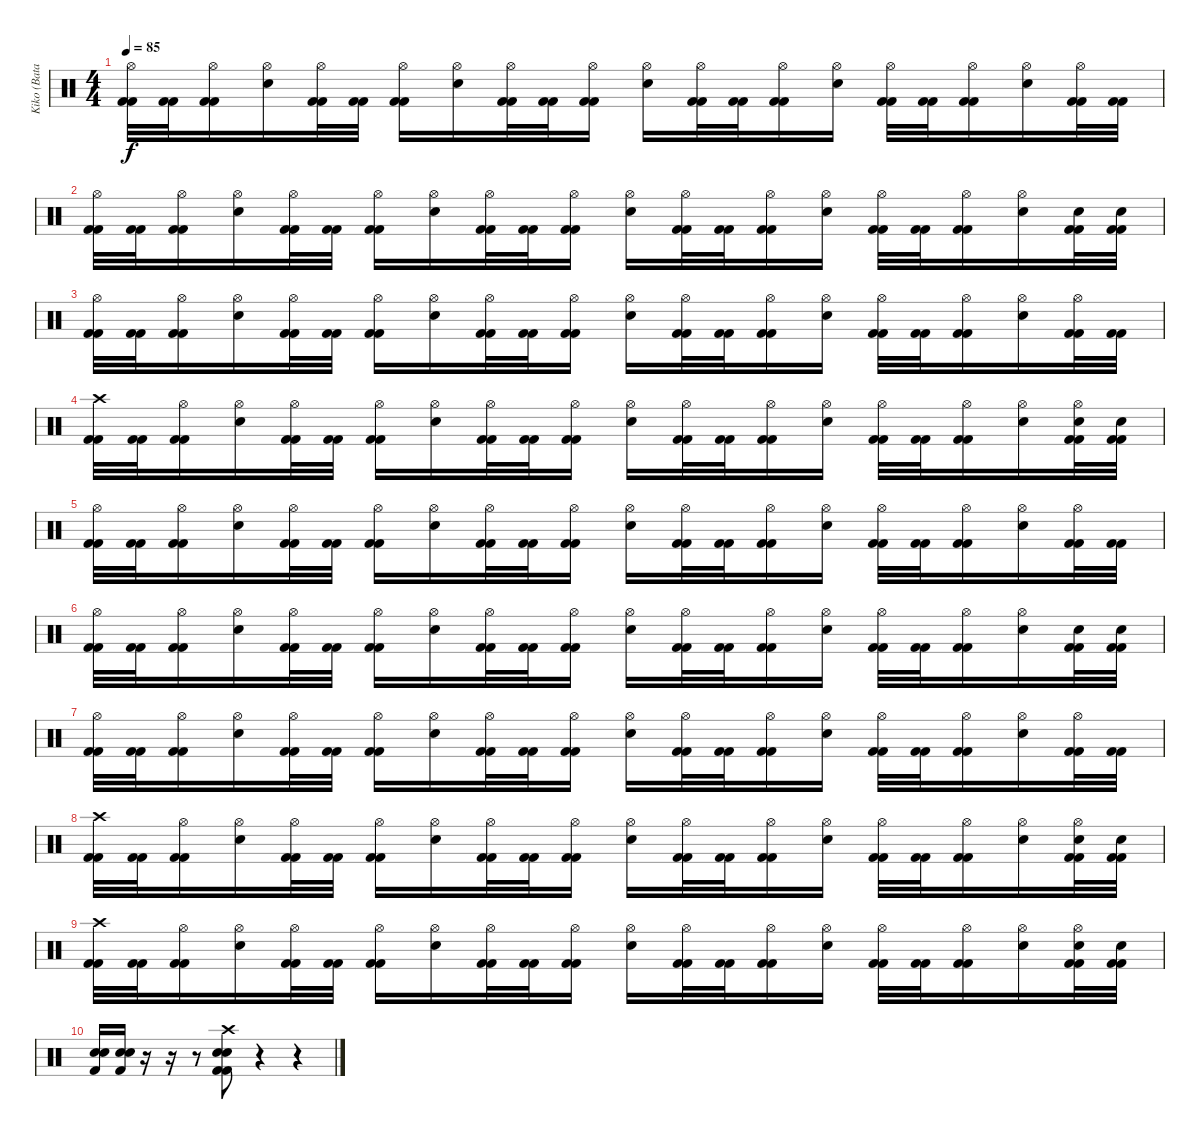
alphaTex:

\track ("Kiko (Bataca)" "Kiko (Bata") {instrument percussion}
\staff {score}
\articulation defaults
\ts (4 4)
\tempo 85
\clef neutral
\ks c
("Hi-Hat (open)" "Kick (hit) 2" "Kick (hit) 2").32{dy f} ("Kick (hit) 2" "Kick (hit) 2").32 ("Hi-Hat (open)" "Kick (hit) 2" "Kick (hit) 2").16 ("Hi-Hat (open)" "Electric Snare (hit)").16 ("Hi-Hat (open)" "Kick (hit) 2" "Kick (hit) 2").32 ("Kick (hit) 2" "Kick (hit) 2").32 ("Hi-Hat (open)" "Kick (hit) 2" "Kick (hit) 2").16 ("Hi-Hat (open)" "Electric Snare (hit)").16 ("Hi-Hat (open)" "Kick (hit) 2" "Kick (hit) 2").32 ("Kick (hit) 2" "Kick (hit) 2").32 ("Hi-Hat (open)" "Kick (hit) 2" "Kick (hit) 2").16 ("Hi-Hat (open)" "Electric Snare (hit)").16 ("Hi-Hat (open)" "Kick (hit) 2" "Kick (hit) 2").32 ("Kick (hit) 2" "Kick (hit) 2").32 ("Hi-Hat (open)" "Kick (hit) 2" "Kick (hit) 2").16 ("Hi-Hat (open)" "Electric Snare (hit)").16 ("Hi-Hat (open)" "Kick (hit) 2" "Kick (hit) 2").32 ("Kick (hit) 2" "Kick (hit) 2").32 ("Hi-Hat (open)" "Kick (hit) 2" "Kick (hit) 2").16 ("Hi-Hat (open)" "Electric Snare (hit)").16 ("Hi-Hat (open)" "Kick (hit) 2" "Kick (hit) 2").32 ("Kick (hit) 2" "Kick (hit) 2").32 |
("Hi-Hat (open)" "Kick (hit) 2" "Kick (hit) 2").32 ("Kick (hit) 2" "Kick (hit) 2").32 ("Hi-Hat (open)" "Kick (hit) 2" "Kick (hit) 2").16 ("Hi-Hat (open)" "Electric Snare (hit)").16 ("Hi-Hat (open)" "Kick (hit) 2" "Kick (hit) 2").32 ("Kick (hit) 2" "Kick (hit) 2").32 ("Hi-Hat (open)" "Kick (hit) 2" "Kick (hit) 2").16 ("Hi-Hat (open)" "Electric Snare (hit)").16 ("Hi-Hat (open)" "Kick (hit) 2" "Kick (hit) 2").32 ("Kick (hit) 2" "Kick (hit) 2").32 ("Hi-Hat (open)" "Kick (hit) 2" "Kick (hit) 2").16 ("Hi-Hat (open)" "Electric Snare (hit)").16 ("Hi-Hat (open)" "Kick (hit) 2" "Kick (hit) 2").32 ("Kick (hit) 2" "Kick (hit) 2").32 ("Hi-Hat (open)" "Kick (hit) 2" "Kick (hit) 2").16 ("Hi-Hat (open)" "Electric Snare (hit)").16 ("Hi-Hat (open)" "Kick (hit) 2" "Kick (hit) 2").32 ("Kick (hit) 2" "Kick (hit) 2").32 ("Hi-Hat (open)" "Kick (hit) 2" "Kick (hit) 2").16 ("Hi-Hat (open)" "Electric Snare (hit)").16 ("Electric Snare (hit)" "Kick (hit) 2" "Kick (hit) 2").32 ("Electric Snare (hit)" "Kick (hit) 2" "Kick (hit) 2").32 |
("Hi-Hat (open)" "Kick (hit) 2" "Kick (hit) 2").32 ("Kick (hit) 2" "Kick (hit) 2").32 ("Hi-Hat (open)" "Kick (hit) 2" "Kick (hit) 2").16 ("Hi-Hat (open)" "Electric Snare (hit)").16 ("Hi-Hat (open)" "Kick (hit) 2" "Kick (hit) 2").32 ("Kick (hit) 2" "Kick (hit) 2").32 ("Hi-Hat (open)" "Kick (hit) 2" "Kick (hit) 2").16 ("Hi-Hat (open)" "Electric Snare (hit)").16 ("Hi-Hat (open)" "Kick (hit) 2" "Kick (hit) 2").32 ("Kick (hit) 2" "Kick (hit) 2").32 ("Hi-Hat (open)" "Kick (hit) 2" "Kick (hit) 2").16 ("Hi-Hat (open)" "Electric Snare (hit)").16 ("Hi-Hat (open)" "Kick (hit) 2" "Kick (hit) 2").32 ("Kick (hit) 2" "Kick (hit) 2").32 ("Hi-Hat (open)" "Kick (hit) 2" "Kick (hit) 2").16 ("Hi-Hat (open)" "Electric Snare (hit)").16 ("Hi-Hat (open)" "Kick (hit) 2" "Kick (hit) 2").32 ("Kick (hit) 2" "Kick (hit) 2").32 ("Hi-Hat (open)" "Kick (hit) 2" "Kick (hit) 2").16 ("Hi-Hat (open)" "Electric Snare (hit)").16 ("Hi-Hat (open)" "Kick (hit) 2" "Kick (hit) 2").32 ("Kick (hit) 2" "Kick (hit) 2").32 |
("Crash high (hit)" "Kick (hit) 2" "Kick (hit) 2").32 ("Kick (hit) 2" "Kick (hit) 2").32 ("Hi-Hat (open)" "Kick (hit) 2" "Kick (hit) 2").16 ("Hi-Hat (open)" "Electric Snare (hit)").16 ("Hi-Hat (open)" "Kick (hit) 2" "Kick (hit) 2").32 ("Kick (hit) 2" "Kick (hit) 2").32 ("Hi-Hat (open)" "Kick (hit) 2" "Kick (hit) 2").16 ("Hi-Hat (open)" "Electric Snare (hit)").16 ("Hi-Hat (open)" "Kick (hit) 2" "Kick (hit) 2").32 ("Kick (hit) 2" "Kick (hit) 2").32 ("Hi-Hat (open)" "Kick (hit) 2" "Kick (hit) 2").16 ("Hi-Hat (open)" "Electric Snare (hit)").16 ("Hi-Hat (open)" "Kick (hit) 2" "Kick (hit) 2").32 ("Kick (hit) 2" "Kick (hit) 2").32 ("Hi-Hat (open)" "Kick (hit) 2" "Kick (hit) 2").16 ("Hi-Hat (open)" "Electric Snare (hit)").16 ("Hi-Hat (open)" "Kick (hit) 2" "Kick (hit) 2").32 ("Kick (hit) 2" "Kick (hit) 2").32 ("Hi-Hat (open)" "Kick (hit) 2" "Kick (hit) 2").16 ("Hi-Hat (open)" "Electric Snare (hit)").16 ("Hi-Hat (open)" "Electric Snare (hit)" "Kick (hit) 2" "Kick (hit) 2").32 ("Electric Snare (hit)" "Kick (hit) 2" "Kick (hit) 2").32 |
("Hi-Hat (open)" "Kick (hit) 2" "Kick (hit) 2").32 ("Kick (hit) 2" "Kick (hit) 2").32 ("Hi-Hat (open)" "Kick (hit) 2" "Kick (hit) 2").16 ("Hi-Hat (open)" "Electric Snare (hit)").16 ("Hi-Hat (open)" "Kick (hit) 2" "Kick (hit) 2").32 ("Kick (hit) 2" "Kick (hit) 2").32 ("Hi-Hat (open)" "Kick (hit) 2" "Kick (hit) 2").16 ("Hi-Hat (open)" "Electric Snare (hit)").16 ("Hi-Hat (open)" "Kick (hit) 2" "Kick (hit) 2").32 ("Kick (hit) 2" "Kick (hit) 2").32 ("Hi-Hat (open)" "Kick (hit) 2" "Kick (hit) 2").16 ("Hi-Hat (open)" "Electric Snare (hit)").16 ("Hi-Hat (open)" "Kick (hit) 2" "Kick (hit) 2").32 ("Kick (hit) 2" "Kick (hit) 2").32 ("Hi-Hat (open)" "Kick (hit) 2" "Kick (hit) 2").16 ("Hi-Hat (open)" "Electric Snare (hit)").16 ("Hi-Hat (open)" "Kick (hit) 2" "Kick (hit) 2").32 ("Kick (hit) 2" "Kick (hit) 2").32 ("Hi-Hat (open)" "Kick (hit) 2" "Kick (hit) 2").16 ("Hi-Hat (open)" "Electric Snare (hit)").16 ("Hi-Hat (open)" "Kick (hit) 2" "Kick (hit) 2").32 ("Kick (hit) 2" "Kick (hit) 2").32 |
("Hi-Hat (open)" "Kick (hit) 2" "Kick (hit) 2").32 ("Kick (hit) 2" "Kick (hit) 2").32 ("Hi-Hat (open)" "Kick (hit) 2" "Kick (hit) 2").16 ("Hi-Hat (open)" "Electric Snare (hit)").16 ("Hi-Hat (open)" "Kick (hit) 2" "Kick (hit) 2").32 ("Kick (hit) 2" "Kick (hit) 2").32 ("Hi-Hat (open)" "Kick (hit) 2" "Kick (hit) 2").16 ("Hi-Hat (open)" "Electric Snare (hit)").16 ("Hi-Hat (open)" "Kick (hit) 2" "Kick (hit) 2").32 ("Kick (hit) 2" "Kick (hit) 2").32 ("Hi-Hat (open)" "Kick (hit) 2" "Kick (hit) 2").16 ("Hi-Hat (open)" "Electric Snare (hit)").16 ("Hi-Hat (open)" "Kick (hit) 2" "Kick (hit) 2").32 ("Kick (hit) 2" "Kick (hit) 2").32 ("Hi-Hat (open)" "Kick (hit) 2" "Kick (hit) 2").16 ("Hi-Hat (open)" "Electric Snare (hit)").16 ("Hi-Hat (open)" "Kick (hit) 2" "Kick (hit) 2").32 ("Kick (hit) 2" "Kick (hit) 2").32 ("Hi-Hat (open)" "Kick (hit) 2" "Kick (hit) 2").16 ("Hi-Hat (open)" "Electric Snare (hit)").16 ("Electric Snare (hit)" "Kick (hit) 2" "Kick (hit) 2").32 ("Electric Snare (hit)" "Kick (hit) 2" "Kick (hit) 2").32 |
("Hi-Hat (open)" "Kick (hit) 2" "Kick (hit) 2").32 ("Kick (hit) 2" "Kick (hit) 2").32 ("Hi-Hat (open)" "Kick (hit) 2" "Kick (hit) 2").16 ("Hi-Hat (open)" "Electric Snare (hit)").16 ("Hi-Hat (open)" "Kick (hit) 2" "Kick (hit) 2").32 ("Kick (hit) 2" "Kick (hit) 2").32 ("Hi-Hat (open)" "Kick (hit) 2" "Kick (hit) 2").16 ("Hi-Hat (open)" "Electric Snare (hit)").16 ("Hi-Hat (open)" "Kick (hit) 2" "Kick (hit) 2").32 ("Kick (hit) 2" "Kick (hit) 2").32 ("Hi-Hat (open)" "Kick (hit) 2" "Kick (hit) 2").16 ("Hi-Hat (open)" "Electric Snare (hit)").16 ("Hi-Hat (open)" "Kick (hit) 2" "Kick (hit) 2").32 ("Kick (hit) 2" "Kick (hit) 2").32 ("Hi-Hat (open)" "Kick (hit) 2" "Kick (hit) 2").16 ("Hi-Hat (open)" "Electric Snare (hit)").16 ("Hi-Hat (open)" "Kick (hit) 2" "Kick (hit) 2").32 ("Kick (hit) 2" "Kick (hit) 2").32 ("Hi-Hat (open)" "Kick (hit) 2" "Kick (hit) 2").16 ("Hi-Hat (open)" "Electric Snare (hit)").16 ("Hi-Hat (open)" "Kick (hit) 2" "Kick (hit) 2").32 ("Kick (hit) 2" "Kick (hit) 2").32 |
("Crash high (hit)" "Kick (hit) 2" "Kick (hit) 2").32 ("Kick (hit) 2" "Kick (hit) 2").32 ("Hi-Hat (open)" "Kick (hit) 2" "Kick (hit) 2").16 ("Hi-Hat (open)" "Electric Snare (hit)").16 ("Hi-Hat (open)" "Kick (hit) 2" "Kick (hit) 2").32 ("Kick (hit) 2" "Kick (hit) 2").32 ("Hi-Hat (open)" "Kick (hit) 2" "Kick (hit) 2").16 ("Hi-Hat (open)" "Electric Snare (hit)").16 ("Hi-Hat (open)" "Kick (hit) 2" "Kick (hit) 2").32 ("Kick (hit) 2" "Kick (hit) 2").32 ("Hi-Hat (open)" "Kick (hit) 2" "Kick (hit) 2").16 ("Hi-Hat (open)" "Electric Snare (hit)").16 ("Hi-Hat (open)" "Kick (hit) 2" "Kick (hit) 2").32 ("Kick (hit) 2" "Kick (hit) 2").32 ("Hi-Hat (open)" "Kick (hit) 2" "Kick (hit) 2").16 ("Hi-Hat (open)" "Electric Snare (hit)").16 ("Hi-Hat (open)" "Kick (hit) 2" "Kick (hit) 2").32 ("Kick (hit) 2" "Kick (hit) 2").32 ("Hi-Hat (open)" "Kick (hit) 2" "Kick (hit) 2").16 ("Hi-Hat (open)" "Electric Snare (hit)").16 ("Hi-Hat (open)" "Electric Snare (hit)" "Kick (hit) 2" "Kick (hit) 2").32 ("Electric Snare (hit)" "Kick (hit) 2" "Kick (hit) 2").32 |
("Crash high (hit)" "Kick (hit) 2" "Kick (hit) 2").32 ("Kick (hit) 2" "Kick (hit) 2").32 ("Hi-Hat (open)" "Kick (hit) 2" "Kick (hit) 2").16 ("Hi-Hat (open)" "Electric Snare (hit)").16 ("Hi-Hat (open)" "Kick (hit) 2" "Kick (hit) 2").32 ("Kick (hit) 2" "Kick (hit) 2").32 ("Hi-Hat (open)" "Kick (hit) 2" "Kick (hit) 2").16 ("Hi-Hat (open)" "Electric Snare (hit)").16 ("Hi-Hat (open)" "Kick (hit) 2" "Kick (hit) 2").32 ("Kick (hit) 2" "Kick (hit) 2").32 ("Hi-Hat (open)" "Kick (hit) 2" "Kick (hit) 2").16 ("Hi-Hat (open)" "Electric Snare (hit)").16 ("Hi-Hat (open)" "Kick (hit) 2" "Kick (hit) 2").32 ("Kick (hit) 2" "Kick (hit) 2").32 ("Hi-Hat (open)" "Kick (hit) 2" "Kick (hit) 2").16 ("Hi-Hat (open)" "Electric Snare (hit)").16 ("Hi-Hat (open)" "Kick (hit) 2" "Kick (hit) 2").32 ("Kick (hit) 2" "Kick (hit) 2").32 ("Hi-Hat (open)" "Kick (hit) 2" "Kick (hit) 2").16 ("Hi-Hat (open)" "Electric Snare (hit)").16 ("Hi-Hat (open)" "Electric Snare (hit)" "Kick (hit) 2" "Kick (hit) 2").32 ("Electric Snare (hit)" "Kick (hit) 2" "Kick (hit) 2").32 |
("Electric Snare (hit)" "Electric Snare (hit)" "Kick (hit) 2").16 ("Electric Snare (hit)" "Electric Snare (hit)" "Kick (hit) 2").16 r.16 r.16 r.8 ("Crash high (hit)" "Electric Snare (hit)" "Electric Snare (hit)" "Kick (hit) 2" "Kick (hit) 2").8 r.4 r.4
